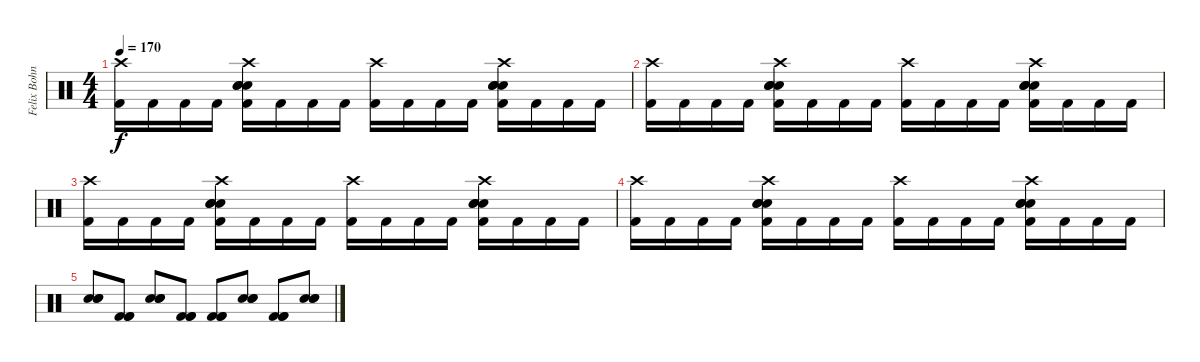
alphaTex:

\track ("Felix Bohnke" "Felix Bohn") {instrument percussion}
\staff {score}
\articulation defaults
\ts (4 4)
\tempo 170
\clef neutral
\ks c
("Crash high (hit)" "Kick (hit) 2").16{dy f} "Kick (hit) 2".16 "Kick (hit) 2".16 "Kick (hit) 2".16 ("Crash high (hit)" "Electric Snare (hit)" "Electric Snare (hit)" "Electric Snare (hit)" "Kick (hit) 2").16 "Kick (hit) 2".16 "Kick (hit) 2".16 "Kick (hit) 2".16 ("Crash high (hit)" "Kick (hit) 2").16 "Kick (hit) 2".16 "Kick (hit) 2".16 "Kick (hit) 2".16 ("Crash high (hit)" "Electric Snare (hit)" "Electric Snare (hit)" "Electric Snare (hit)" "Kick (hit) 2").16 "Kick (hit) 2".16 "Kick (hit) 2".16 "Kick (hit) 2".16 |
("Crash high (hit)" "Kick (hit) 2").16 "Kick (hit) 2".16 "Kick (hit) 2".16 "Kick (hit) 2".16 ("Crash high (hit)" "Electric Snare (hit)" "Electric Snare (hit)" "Electric Snare (hit)" "Kick (hit) 2").16 "Kick (hit) 2".16 "Kick (hit) 2".16 "Kick (hit) 2".16 ("Crash high (hit)" "Kick (hit) 2").16 "Kick (hit) 2".16 "Kick (hit) 2".16 "Kick (hit) 2".16 ("Crash high (hit)" "Electric Snare (hit)" "Electric Snare (hit)" "Electric Snare (hit)" "Kick (hit) 2").16 "Kick (hit) 2".16 "Kick (hit) 2".16 "Kick (hit) 2".16 |
("Crash high (hit)" "Kick (hit) 2").16 "Kick (hit) 2".16 "Kick (hit) 2".16 "Kick (hit) 2".16 ("Crash high (hit)" "Electric Snare (hit)" "Electric Snare (hit)" "Electric Snare (hit)" "Kick (hit) 2").16 "Kick (hit) 2".16 "Kick (hit) 2".16 "Kick (hit) 2".16 ("Crash high (hit)" "Kick (hit) 2").16 "Kick (hit) 2".16 "Kick (hit) 2".16 "Kick (hit) 2".16 ("Crash high (hit)" "Electric Snare (hit)" "Electric Snare (hit)" "Electric Snare (hit)" "Kick (hit) 2").16 "Kick (hit) 2".16 "Kick (hit) 2".16 "Kick (hit) 2".16 |
("Crash high (hit)" "Kick (hit) 2").16 "Kick (hit) 2".16 "Kick (hit) 2".16 "Kick (hit) 2".16 ("Crash high (hit)" "Electric Snare (hit)" "Electric Snare (hit)" "Electric Snare (hit)" "Kick (hit) 2").16 "Kick (hit) 2".16 "Kick (hit) 2".16 "Kick (hit) 2".16 ("Crash high (hit)" "Kick (hit) 2").16 "Kick (hit) 2".16 "Kick (hit) 2".16 "Kick (hit) 2".16 ("Crash high (hit)" "Electric Snare (hit)" "Electric Snare (hit)" "Electric Snare (hit)" "Kick (hit) 2").16 "Kick (hit) 2".16 "Kick (hit) 2".16 "Kick (hit) 2".16 |
("Electric Snare (hit)" "Electric Snare (hit)" "Electric Snare (hit)").8 ("Kick (hit) 2" "Kick (hit) 2" "Kick (hit) 2").8 ("Electric Snare (hit)" "Electric Snare (hit)" "Electric Snare (hit)").8 ("Kick (hit) 2" "Kick (hit) 2" "Kick (hit) 2").8 ("Kick (hit) 2" "Kick (hit) 2" "Kick (hit) 2").8 ("Electric Snare (hit)" "Electric Snare (hit)" "Electric Snare (hit)").8 ("Kick (hit) 2" "Kick (hit) 2" "Kick (hit) 2").8 ("Electric Snare (hit)" "Electric Snare (hit)" "Electric Snare (hit)").8
